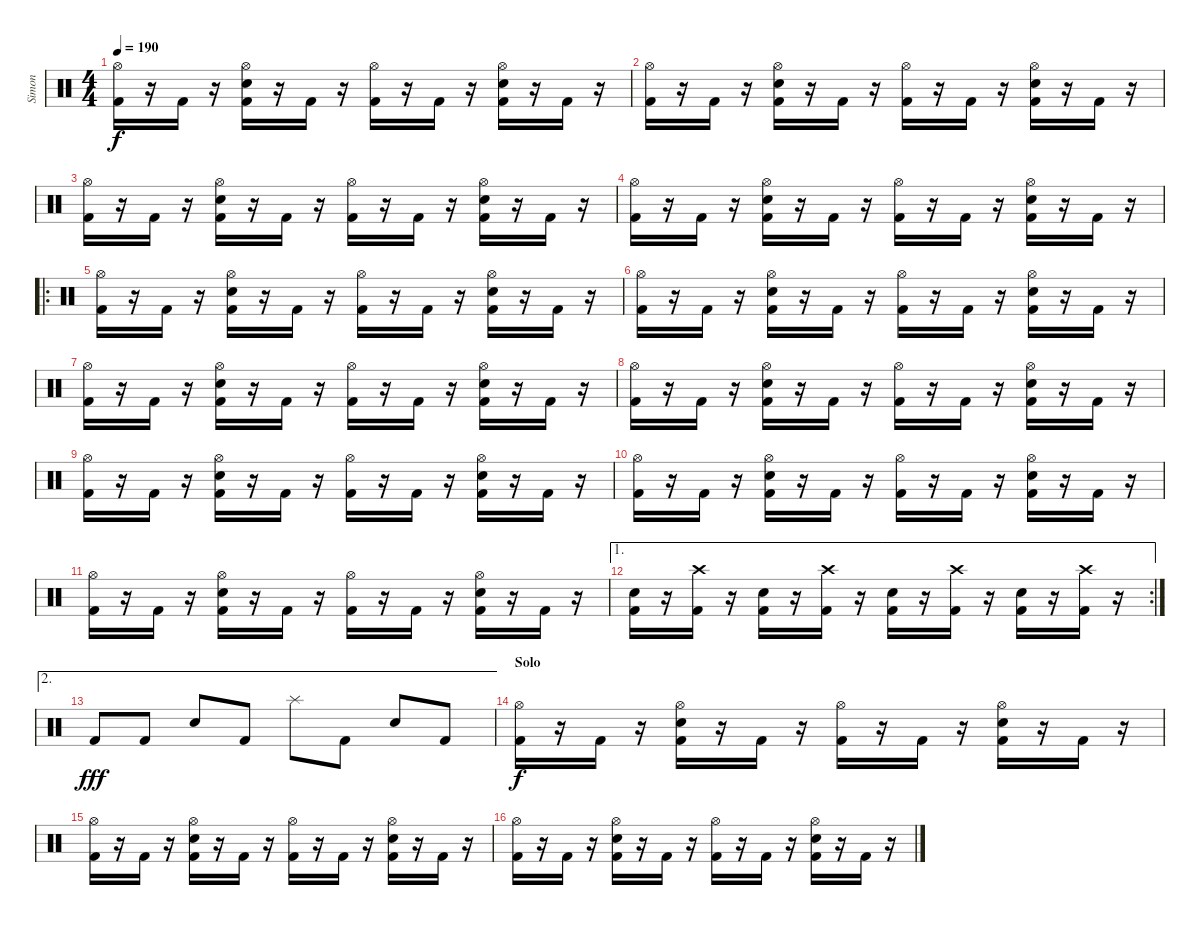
\track ("Simon" "Simon") {instrument percussion}
\staff {score}
\articulation defaults
\ts (4 4)
\tempo 190
\clef neutral
\ks c
("Hi-Hat (open)" "Kick (hit) 2").16{dy f} r.16 "Kick (hit) 2".16 r.16 ("Hi-Hat (open)" "Snare (hit) 2" "Kick (hit) 2").16 r.16 "Kick (hit) 2".16 r.16 ("Hi-Hat (open)" "Kick (hit) 2").16 r.16 "Kick (hit) 2".16 r.16 ("Hi-Hat (open)" "Snare (hit) 2" "Kick (hit) 2").16 r.16 "Kick (hit) 2".16 r.16 |
("Hi-Hat (open)" "Kick (hit) 2").16 r.16 "Kick (hit) 2".16 r.16 ("Hi-Hat (open)" "Snare (hit) 2" "Kick (hit) 2").16 r.16 "Kick (hit) 2".16 r.16 ("Hi-Hat (open)" "Kick (hit) 2").16 r.16 "Kick (hit) 2".16 r.16 ("Hi-Hat (open)" "Snare (hit) 2" "Kick (hit) 2").16 r.16 "Kick (hit) 2".16 r.16 |
("Hi-Hat (open)" "Kick (hit) 2").16 r.16 "Kick (hit) 2".16 r.16 ("Hi-Hat (open)" "Snare (hit) 2" "Kick (hit) 2").16 r.16 "Kick (hit) 2".16 r.16 ("Hi-Hat (open)" "Kick (hit) 2").16 r.16 "Kick (hit) 2".16 r.16 ("Hi-Hat (open)" "Snare (hit) 2" "Kick (hit) 2").16 r.16 "Kick (hit) 2".16 r.16 |
("Hi-Hat (open)" "Kick (hit) 2").16 r.16 "Kick (hit) 2".16 r.16 ("Hi-Hat (open)" "Snare (hit) 2" "Kick (hit) 2").16 r.16 "Kick (hit) 2".16 r.16 ("Hi-Hat (open)" "Kick (hit) 2").16 r.16 "Kick (hit) 2".16 r.16 ("Hi-Hat (open)" "Snare (hit) 2" "Kick (hit) 2").16 r.16 "Kick (hit) 2".16 r.16 |
\ro
("Hi-Hat (open)" "Kick (hit) 2").16 r.16 "Kick (hit) 2".16 r.16 ("Hi-Hat (open)" "Snare (hit) 2" "Kick (hit) 2").16 r.16 "Kick (hit) 2".16 r.16 ("Hi-Hat (open)" "Kick (hit) 2").16 r.16 "Kick (hit) 2".16 r.16 ("Hi-Hat (open)" "Snare (hit) 2" "Kick (hit) 2").16 r.16 "Kick (hit) 2".16 r.16 |
("Hi-Hat (open)" "Kick (hit) 2").16 r.16 "Kick (hit) 2".16 r.16 ("Hi-Hat (open)" "Snare (hit) 2" "Kick (hit) 2").16 r.16 "Kick (hit) 2".16 r.16 ("Hi-Hat (open)" "Kick (hit) 2").16 r.16 "Kick (hit) 2".16 r.16 ("Hi-Hat (open)" "Snare (hit) 2" "Kick (hit) 2").16 r.16 "Kick (hit) 2".16 r.16 |
("Hi-Hat (open)" "Kick (hit) 2").16 r.16 "Kick (hit) 2".16 r.16 ("Hi-Hat (open)" "Snare (hit) 2" "Kick (hit) 2").16 r.16 "Kick (hit) 2".16 r.16 ("Hi-Hat (open)" "Kick (hit) 2").16 r.16 "Kick (hit) 2".16 r.16 ("Hi-Hat (open)" "Snare (hit) 2" "Kick (hit) 2").16 r.16 "Kick (hit) 2".16 r.16 |
("Hi-Hat (open)" "Kick (hit) 2").16 r.16 "Kick (hit) 2".16 r.16 ("Hi-Hat (open)" "Snare (hit) 2" "Kick (hit) 2").16 r.16 "Kick (hit) 2".16 r.16 ("Hi-Hat (open)" "Kick (hit) 2").16 r.16 "Kick (hit) 2".16 r.16 ("Hi-Hat (open)" "Snare (hit) 2" "Kick (hit) 2").16 r.16 "Kick (hit) 2".16 r.16 |
("Hi-Hat (open)" "Kick (hit) 2").16 r.16 "Kick (hit) 2".16 r.16 ("Hi-Hat (open)" "Snare (hit) 2" "Kick (hit) 2").16 r.16 "Kick (hit) 2".16 r.16 ("Hi-Hat (open)" "Kick (hit) 2").16 r.16 "Kick (hit) 2".16 r.16 ("Hi-Hat (open)" "Snare (hit) 2" "Kick (hit) 2").16 r.16 "Kick (hit) 2".16 r.16 |
("Hi-Hat (open)" "Kick (hit) 2").16 r.16 "Kick (hit) 2".16 r.16 ("Hi-Hat (open)" "Snare (hit) 2" "Kick (hit) 2").16 r.16 "Kick (hit) 2".16 r.16 ("Hi-Hat (open)" "Kick (hit) 2").16 r.16 "Kick (hit) 2".16 r.16 ("Hi-Hat (open)" "Snare (hit) 2" "Kick (hit) 2").16 r.16 "Kick (hit) 2".16 r.16 |
("Hi-Hat (open)" "Kick (hit) 2").16 r.16 "Kick (hit) 2".16 r.16 ("Hi-Hat (open)" "Snare (hit) 2" "Kick (hit) 2").16 r.16 "Kick (hit) 2".16 r.16 ("Hi-Hat (open)" "Kick (hit) 2").16 r.16 "Kick (hit) 2".16 r.16 ("Hi-Hat (open)" "Snare (hit) 2" "Kick (hit) 2").16 r.16 "Kick (hit) 2".16 r.16 |
\ae 1
\rc 2
("Snare (hit) 2" "Kick (hit) 2").16 r.16 ("Crash high (hit)" "Kick (hit) 2").16 r.16 ("Snare (hit) 2" "Kick (hit) 2").16 r.16 ("Crash high (hit)" "Kick (hit) 2").16 r.16 ("Snare (hit) 2" "Kick (hit) 2").16 r.16 ("Crash high (hit)" "Kick (hit) 2").16 r.16 ("Snare (hit) 2" "Kick (hit) 2").16 r.16 ("Crash high (hit)" "Kick (hit) 2").16 r.16 |
\ae 2 "Kick (hit) 2".8{dy fff} "Kick (hit) 2".8 "Snare (hit) 2".8 "Kick (hit) 2".8 "Splash (hit)".8 "Kick (hit) 2".8 "Snare (hit) 2".8 "Kick (hit) 2".8
|
\section ("" "Solo")
("Hi-Hat (open)" "Kick (hit) 2").16{dy f} r.16 "Kick (hit) 2".16 r.16 ("Hi-Hat (open)" "Snare (hit) 2" "Kick (hit) 2").16 r.16 "Kick (hit) 2".16 r.16 ("Hi-Hat (open)" "Kick (hit) 2").16 r.16 "Kick (hit) 2".16 r.16 ("Hi-Hat (open)" "Snare (hit) 2" "Kick (hit) 2").16 r.16 "Kick (hit) 2".16 r.16 |
("Hi-Hat (open)" "Kick (hit) 2").16 r.16 "Kick (hit) 2".16 r.16 ("Hi-Hat (open)" "Snare (hit) 2" "Kick (hit) 2").16 r.16 "Kick (hit) 2".16 r.16 ("Hi-Hat (open)" "Kick (hit) 2").16 r.16 "Kick (hit) 2".16 r.16 ("Hi-Hat (open)" "Snare (hit) 2" "Kick (hit) 2").16 r.16 "Kick (hit) 2".16 r.16 |
("Hi-Hat (open)" "Kick (hit) 2").16 r.16 "Kick (hit) 2".16 r.16 ("Hi-Hat (open)" "Snare (hit) 2" "Kick (hit) 2").16 r.16 "Kick (hit) 2".16 r.16 ("Hi-Hat (open)" "Kick (hit) 2").16 r.16 "Kick (hit) 2".16 r.16 ("Hi-Hat (open)" "Snare (hit) 2" "Kick (hit) 2").16 r.16 "Kick (hit) 2".16 r.16
